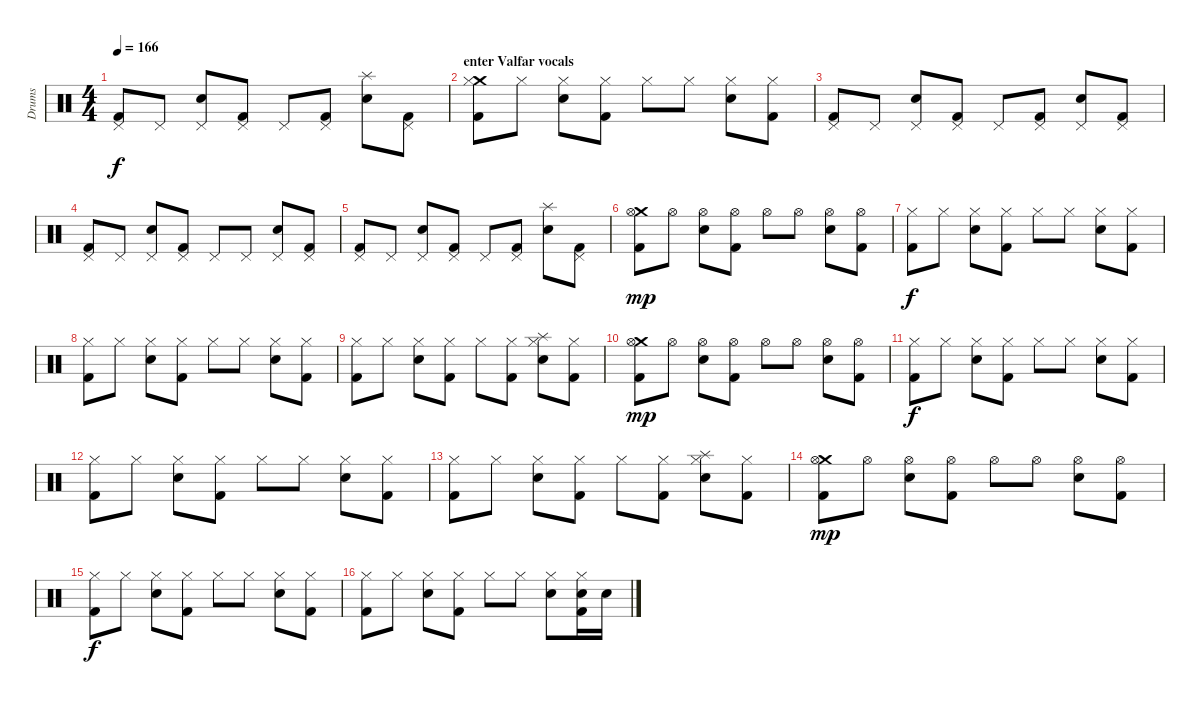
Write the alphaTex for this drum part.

\track ("Drums" "Drums") {instrument percussion}
\staff {score}
\articulation defaults
\ts (4 4)
\tempo 166
\clef neutral
\ks c
("Pedal Hi-Hat (hit)" "Kick (hit) 2").8{dy f} "Pedal Hi-Hat (hit)".8 ("Pedal Hi-Hat (hit)" "Electric Snare (hit)").8 ("Pedal Hi-Hat (hit)" "Kick (hit) 2").8 "Pedal Hi-Hat (hit)".8 ("Pedal Hi-Hat (hit)" "Kick (hit) 2").8 ("Splash (hit)" "Electric Snare (hit)").8 ("Pedal Hi-Hat (hit)" "Kick (hit) 2").8 |
\section ("" "enter Valfar vocals")
("Crash medium (hit)" "Hi-Hat (closed)" "Kick (hit) 2").8 "Hi-Hat (closed)".8 ("Hi-Hat (closed)" "Electric Snare (hit)").8 ("Hi-Hat (closed)" "Kick (hit) 2").8 "Hi-Hat (closed)".8 "Hi-Hat (closed)".8 ("Hi-Hat (closed)" "Electric Snare (hit)").8 ("Hi-Hat (closed)" "Kick (hit) 2").8 |
("Pedal Hi-Hat (hit)" "Kick (hit) 2").8 "Pedal Hi-Hat (hit)".8 ("Pedal Hi-Hat (hit)" "Electric Snare (hit)").8 ("Pedal Hi-Hat (hit)" "Kick (hit) 2").8 "Pedal Hi-Hat (hit)".8 ("Pedal Hi-Hat (hit)" "Kick (hit) 2").8 ("Pedal Hi-Hat (hit)" "Electric Snare (hit)").8 ("Pedal Hi-Hat (hit)" "Kick (hit) 2").8 |
("Pedal Hi-Hat (hit)" "Kick (hit) 2").8 "Pedal Hi-Hat (hit)".8 ("Pedal Hi-Hat (hit)" "Electric Snare (hit)").8 ("Pedal Hi-Hat (hit)" "Kick (hit) 2").8 "Pedal Hi-Hat (hit)".8 "Pedal Hi-Hat (hit)".8 ("Pedal Hi-Hat (hit)" "Electric Snare (hit)").8 ("Pedal Hi-Hat (hit)" "Kick (hit) 2").8 |
("Pedal Hi-Hat (hit)" "Kick (hit) 2").8 "Pedal Hi-Hat (hit)".8 ("Pedal Hi-Hat (hit)" "Electric Snare (hit)").8 ("Pedal Hi-Hat (hit)" "Kick (hit) 2").8 "Pedal Hi-Hat (hit)".8 ("Pedal Hi-Hat (hit)" "Kick (hit) 2").8 ("Splash (hit)" "Electric Snare (hit)").8 ("Pedal Hi-Hat (hit)" "Kick (hit) 2").8 |
("Crash medium (hit)" "Hi-Hat (open)" "Kick (hit) 2").8{dy mp} "Hi-Hat (open)".8 ("Hi-Hat (open)" "Electric Snare (hit)").8 ("Hi-Hat (open)" "Kick (hit) 2").8 "Hi-Hat (open)".8 "Hi-Hat (open)".8 ("Hi-Hat (open)" "Electric Snare (hit)").8 ("Hi-Hat (open)" "Kick (hit) 2").8 |
("Hi-Hat (closed)" "Kick (hit) 2").8{dy f} "Hi-Hat (closed)".8 ("Hi-Hat (closed)" "Electric Snare (hit)").8 ("Hi-Hat (closed)" "Kick (hit) 2").8 "Hi-Hat (closed)".8 "Hi-Hat (closed)".8 ("Hi-Hat (closed)" "Electric Snare (hit)").8 ("Hi-Hat (closed)" "Kick (hit) 2").8 |
("Hi-Hat (closed)" "Kick (hit) 2").8 "Hi-Hat (closed)".8 ("Hi-Hat (closed)" "Electric Snare (hit)").8 ("Hi-Hat (closed)" "Kick (hit) 2").8 "Hi-Hat (closed)".8 "Hi-Hat (closed)".8 ("Hi-Hat (closed)" "Electric Snare (hit)").8 ("Hi-Hat (closed)" "Kick (hit) 2").8 |
("Hi-Hat (closed)" "Kick (hit) 2").8 "Hi-Hat (closed)".8 ("Hi-Hat (closed)" "Electric Snare (hit)").8 ("Hi-Hat (closed)" "Kick (hit) 2").8 "Hi-Hat (closed)".8 ("Hi-Hat (closed)" "Kick (hit) 2").8 ("Splash (hit)" "Hi-Hat (closed)" "Electric Snare (hit)").8 ("Hi-Hat (closed)" "Kick (hit) 2").8 |
("Crash medium (hit)" "Hi-Hat (open)" "Kick (hit) 2").8{dy mp} "Hi-Hat (open)".8 ("Hi-Hat (open)" "Electric Snare (hit)").8 ("Hi-Hat (open)" "Kick (hit) 2").8 "Hi-Hat (open)".8 "Hi-Hat (open)".8 ("Hi-Hat (open)" "Electric Snare (hit)").8 ("Hi-Hat (open)" "Kick (hit) 2").8 |
("Hi-Hat (closed)" "Kick (hit) 2").8{dy f} "Hi-Hat (closed)".8 ("Hi-Hat (closed)" "Electric Snare (hit)").8 ("Hi-Hat (closed)" "Kick (hit) 2").8 "Hi-Hat (closed)".8 "Hi-Hat (closed)".8 ("Hi-Hat (closed)" "Electric Snare (hit)").8 ("Hi-Hat (closed)" "Kick (hit) 2").8 |
("Hi-Hat (closed)" "Kick (hit) 2").8 "Hi-Hat (closed)".8 ("Hi-Hat (closed)" "Electric Snare (hit)").8 ("Hi-Hat (closed)" "Kick (hit) 2").8 "Hi-Hat (closed)".8 "Hi-Hat (closed)".8 ("Hi-Hat (closed)" "Electric Snare (hit)").8 ("Hi-Hat (closed)" "Kick (hit) 2").8 |
("Hi-Hat (closed)" "Kick (hit) 2").8 "Hi-Hat (closed)".8 ("Hi-Hat (closed)" "Electric Snare (hit)").8 ("Hi-Hat (closed)" "Kick (hit) 2").8 "Hi-Hat (closed)".8 ("Hi-Hat (closed)" "Kick (hit) 2").8 ("Splash (hit)" "Hi-Hat (closed)" "Electric Snare (hit)").8 ("Hi-Hat (closed)" "Kick (hit) 2").8 |
("Crash medium (hit)" "Hi-Hat (open)" "Kick (hit) 2").8{dy mp} "Hi-Hat (open)".8 ("Hi-Hat (open)" "Electric Snare (hit)").8 ("Hi-Hat (open)" "Kick (hit) 2").8 "Hi-Hat (open)".8 "Hi-Hat (open)".8 ("Hi-Hat (open)" "Electric Snare (hit)").8 ("Hi-Hat (open)" "Kick (hit) 2").8 |
("Hi-Hat (closed)" "Kick (hit) 2").8{dy f} "Hi-Hat (closed)".8 ("Hi-Hat (closed)" "Electric Snare (hit)").8 ("Hi-Hat (closed)" "Kick (hit) 2").8 "Hi-Hat (closed)".8 "Hi-Hat (closed)".8 ("Hi-Hat (closed)" "Electric Snare (hit)").8 ("Hi-Hat (closed)" "Kick (hit) 2").8 |
("Hi-Hat (closed)" "Kick (hit) 2").8 "Hi-Hat (closed)".8 ("Hi-Hat (closed)" "Electric Snare (hit)").8 ("Hi-Hat (closed)" "Kick (hit) 2").8 "Hi-Hat (closed)".8 "Hi-Hat (closed)".8 ("Hi-Hat (closed)" "Electric Snare (hit)").8 ("Hi-Hat (closed)" "Electric Snare (hit)" "Kick (hit) 2").16 "Electric Snare (hit)".16
